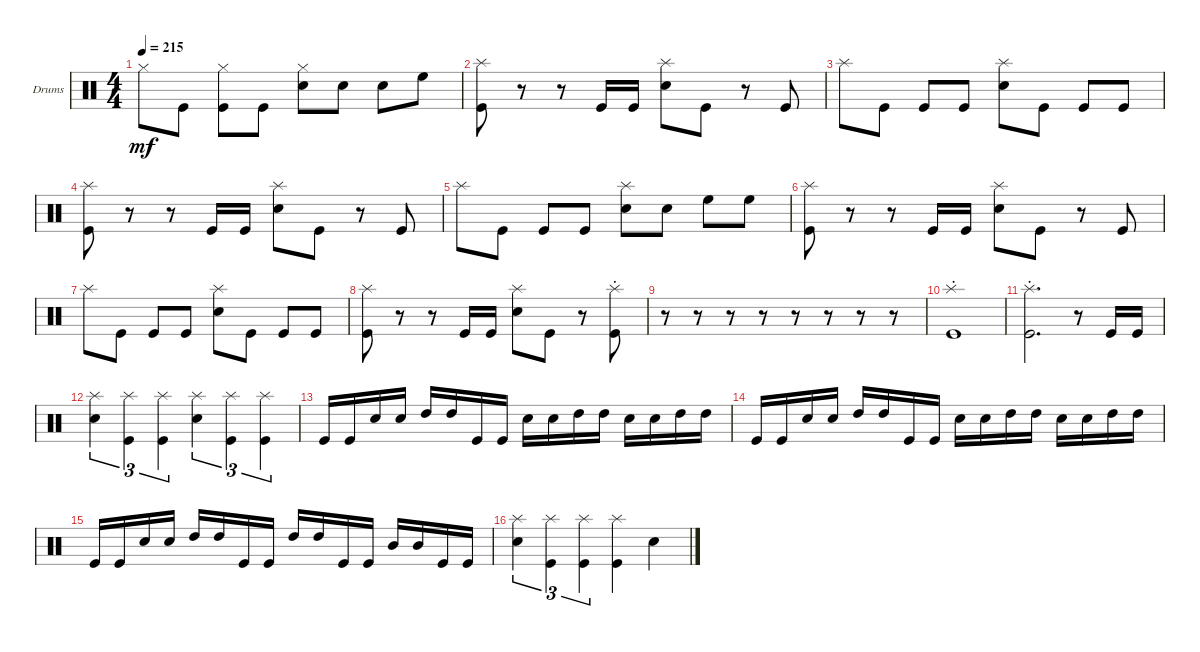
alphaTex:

\bracketExtendMode groupsimilarinstruments
\firstSystemTrackNameOrientation horizontal
\otherSystemsTrackNameOrientation horizontal
\track ("Drumkit" "Drums") {instrument percussion}
\staff {score}
\articulation defaults
\ts (4 4)
\tempo 215
\clef neutral
\ks c "Hi-Hat (closed)".8{dy mf} "Kick (hit)".8
("Kick (hit)" "Hi-Hat (closed)").8 "Kick (hit)".8 ("Snare (hit) 2" "Hi-Hat (closed)").8 "Snare (hit) 2".8 "Snare (hit) 2".8 "High Floor Tom (hit)".8 |
("Kick (hit)" "Splash (hit)").8 r.8 r.8 "Kick (hit)".16 "Kick (hit)".16 ("Snare (hit) 2" "Splash (hit)").8 "Kick (hit)".8 r.8 "Kick (hit)".8 |
"Splash (hit)".8 "Kick (hit)".8 "Kick (hit)".8 "Kick (hit)".8 ("Snare (hit) 2" "Splash (hit)").8 "Kick (hit)".8 "Kick (hit)".8 "Kick (hit)".8 |
("Kick (hit)" "Splash (hit)").8 r.8 r.8 "Kick (hit)".16 "Kick (hit)".16 ("Snare (hit) 2" "Splash (hit)").8 "Kick (hit)".8 r.8 "Kick (hit)".8 |
"Splash (hit)".8 "Kick (hit)".8 "Kick (hit)".8 "Kick (hit)".8 ("Snare (hit) 2" "Splash (hit)").8 "Snare (hit) 2".8 "High Floor Tom (hit)".8 "High Floor Tom (hit)".8 |
("Kick (hit)" "Splash (hit)").8 r.8 r.8 "Kick (hit)".16 "Kick (hit)".16 ("Snare (hit) 2" "Splash (hit)").8 "Kick (hit)".8 r.8 "Kick (hit)".8 |
"Splash (hit)".8 "Kick (hit)".8 "Kick (hit)".8 "Kick (hit)".8 ("Snare (hit) 2" "Splash (hit)").8 "Kick (hit)".8 "Kick (hit)".8 "Kick (hit)".8 |
("Kick (hit)" "Splash (hit)").8 r.8 r.8 "Kick (hit)".16 "Kick (hit)".16 ("Snare (hit) 2" "Splash (hit)").8 "Kick (hit)".8 r.8 ("Kick (hit)" "Splash (hit)"{st}).8 |
r.8 r.8 r.8 r.8 r.8 r.8 r.8 r.8 |
("Kick (hit)" "Splash (hit)"{st}).1 |
("Kick (hit)"{st} "Splash (hit)"{st}).2{d} r.8 "Kick (hit)".16 "Kick (hit)".16 |
("Snare (hit) 2" "Splash (hit)").4{tu (3 2)} ("Kick (hit)" "Splash (hit)").4{tu (3 2)} ("Kick (hit)" "Splash (hit)").4{tu (3 2)} ("Snare (hit) 2" "Splash (hit)").4{tu (3 2)} ("Kick (hit)" "Splash (hit)").4{tu (3 2)} ("Kick (hit)" "Splash (hit)").4{tu (3 2)} |
"Kick (hit)".16 "Kick (hit)".16 "Snare (hit) 2".16 "Snare (hit) 2".16 "High Tom (hit)".16 "High Tom (hit)".16 "Kick (hit)".16 "Kick (hit)".16 "Snare (hit) 2".16 "Snare (hit) 2".16 "High Tom (hit)".16 "High Tom (hit)".16 "Snare (hit) 2".16 "Snare (hit) 2".16 "High Tom (hit)".16 "High Tom (hit)".16 |
"Kick (hit)".16 "Kick (hit)".16 "Snare (hit) 2".16 "Snare (hit) 2".16 "High Tom (hit)".16 "High Tom (hit)".16 "Kick (hit)".16 "Kick (hit)".16 "Snare (hit) 2".16 "Snare (hit) 2".16 "High Tom (hit)".16 "High Tom (hit)".16 "Snare (hit) 2".16 "Snare (hit) 2".16 "High Tom (hit)".16 "High Tom (hit)".16 |
"Kick (hit)".16 "Kick (hit)".16 "Snare (hit) 2".16 "Snare (hit) 2".16 "High Tom (hit)".16 "High Tom (hit)".16 "Kick (hit)".16 "Kick (hit)".16 "High Tom (hit)".16 "High Tom (hit)".16 "Kick (hit)".16 "Kick (hit)".16 "Mid Tom (hit)".16 "Mid Tom (hit)".16 "Kick (hit)".16 "Kick (hit)".16 |
("Snare (hit) 2" "Splash (hit)").4{tu (3 2)} ("Kick (hit)" "Splash (hit)").4{tu (3 2)} ("Kick (hit)" "Splash (hit)").4{tu (3 2)} ("Kick (hit)" "Splash (hit)").4 "Snare (hit) 2".4
